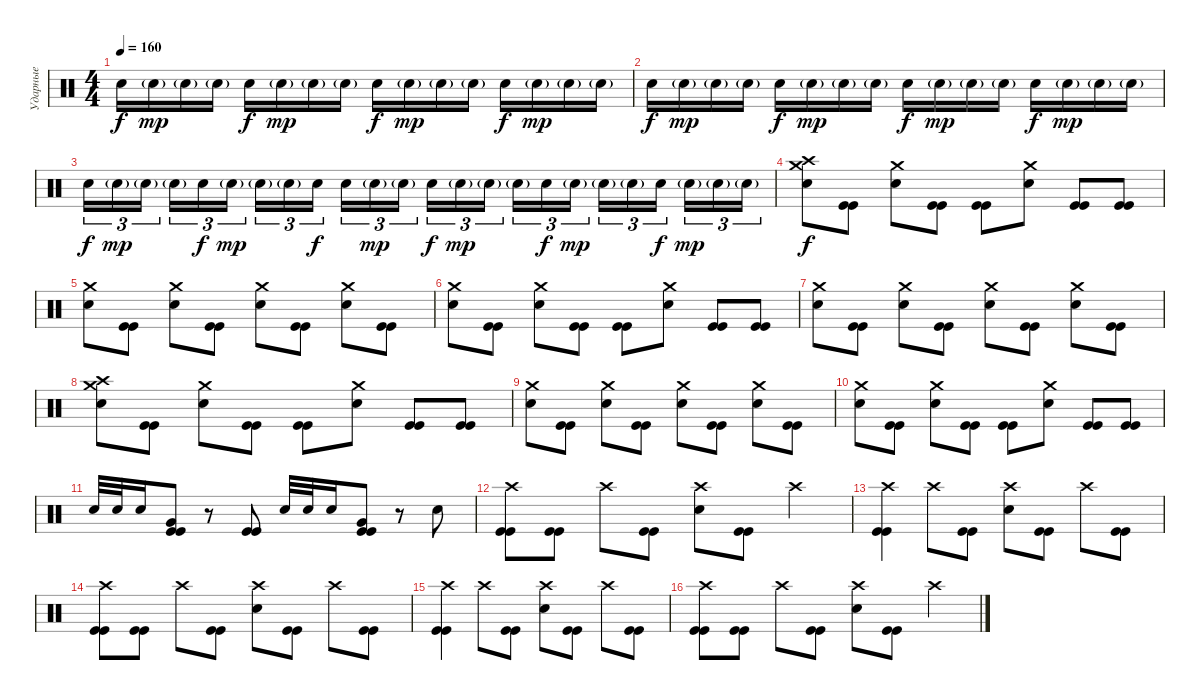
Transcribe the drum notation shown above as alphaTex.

\track ("Ударные" "Ударные") {instrument percussion}
\staff {score}
\articulation defaults
\ts (4 4)
\tempo 160
\clef neutral
\ks c "Electric Snare (hit)".16{dy f} "Electric Snare (hit)"{g}.16{dy mp} "Electric Snare (hit)"{g}.16 "Electric Snare (hit)"{g}.16 "Electric Snare (hit)".16{dy f} "Electric Snare (hit)"{g}.16{dy mp} "Electric Snare (hit)"{g}.16 "Electric Snare (hit)"{g}.16 "Electric Snare (hit)".16{dy f} "Electric Snare (hit)"{g}.16{dy mp} "Electric Snare (hit)"{g}.16 "Electric Snare (hit)"{g}.16 "Electric Snare (hit)".16{dy f} "Electric Snare (hit)"{g}.16{dy mp} "Electric Snare (hit)"{g}.16 "Electric Snare (hit)"{g}.16
|
"Electric Snare (hit)".16{dy f} "Electric Snare (hit)"{g}.16{dy mp} "Electric Snare (hit)"{g}.16 "Electric Snare (hit)"{g}.16 "Electric Snare (hit)".16{dy f} "Electric Snare (hit)"{g}.16{dy mp} "Electric Snare (hit)"{g}.16 "Electric Snare (hit)"{g}.16 "Electric Snare (hit)".16{dy f} "Electric Snare (hit)"{g}.16{dy mp} "Electric Snare (hit)"{g}.16 "Electric Snare (hit)"{g}.16 "Electric Snare (hit)".16{dy f} "Electric Snare (hit)"{g}.16{dy mp} "Electric Snare (hit)"{g}.16 "Electric Snare (hit)"{g}.16 |
"Electric Snare (hit)".16{tu (3 2) dy f} "Electric Snare (hit)"{g}.16{tu (3 2) dy mp} "Electric Snare (hit)"{g}.16{tu (3 2) beam splitsecondary} "Electric Snare (hit)"{g}.16{tu (3 2)} "Electric Snare (hit)".16{tu (3 2) dy f} "Electric Snare (hit)"{g}.16{tu (3 2) dy mp} "Electric Snare (hit)"{g}.16{tu (3 2)} "Electric Snare (hit)"{g}.16{tu (3 2)} "Electric Snare (hit)".16{tu (3 2) dy f beam splitsecondary} "Electric Snare (hit)".16{tu (3 2)} "Electric Snare (hit)"{g}.16{tu (3 2) dy mp} "Electric Snare (hit)"{g}.16{tu (3 2)} "Electric Snare (hit)".16{tu (3 2) dy f} "Electric Snare (hit)"{g}.16{tu (3 2) dy mp} "Electric Snare (hit)"{g}.16{tu (3 2) beam splitsecondary} "Electric Snare (hit)"{g}.16{tu (3 2)} "Electric Snare (hit)".16{tu (3 2) dy f} "Electric Snare (hit)"{g}.16{tu (3 2) dy mp} "Electric Snare (hit)"{g}.16{tu (3 2)} "Electric Snare (hit)"{g}.16{tu (3 2)} "Electric Snare (hit)".16{tu (3 2) dy f beam splitsecondary} "Electric Snare (hit)"{g}.16{tu (3 2) dy mp} "Electric Snare (hit)"{g}.16{tu (3 2)} "Electric Snare (hit)"{g}.16{tu (3 2)} |
("Crash high (hit)" "Crash medium (hit)" "Electric Snare (hit)").8{dy f} ("Kick (hit)" "Kick (hit)").8 ("Crash medium (hit)" "Electric Snare (hit)").8 ("Kick (hit)" "Kick (hit)").8 ("Kick (hit)" "Kick (hit)").8 ("Crash medium (hit)" "Electric Snare (hit)").8 ("Kick (hit)" "Kick (hit)").8 ("Kick (hit)" "Kick (hit)").8 |
("Crash medium (hit)" "Electric Snare (hit)").8 ("Kick (hit)" "Kick (hit)").8 ("Crash medium (hit)" "Electric Snare (hit)").8 ("Kick (hit)" "Kick (hit)").8 ("Crash medium (hit)" "Electric Snare (hit)").8 ("Kick (hit)" "Kick (hit)").8 ("Crash medium (hit)" "Electric Snare (hit)").8 ("Kick (hit)" "Kick (hit)").8 |
("Crash medium (hit)" "Electric Snare (hit)").8 ("Kick (hit)" "Kick (hit)").8 ("Crash medium (hit)" "Electric Snare (hit)").8 ("Kick (hit)" "Kick (hit)").8 ("Kick (hit)" "Kick (hit)").8 ("Crash medium (hit)" "Electric Snare (hit)").8 ("Kick (hit)" "Kick (hit)").8 ("Kick (hit)" "Kick (hit)").8 |
("Crash medium (hit)" "Electric Snare (hit)").8 ("Kick (hit)" "Kick (hit)").8 ("Crash medium (hit)" "Electric Snare (hit)").8 ("Kick (hit)" "Kick (hit)").8 ("Crash medium (hit)" "Electric Snare (hit)").8 ("Kick (hit)" "Kick (hit)").8 ("Crash medium (hit)" "Electric Snare (hit)").8 ("Kick (hit)" "Kick (hit)").8 |
("Crash high (hit)" "Crash medium (hit)" "Electric Snare (hit)").8 ("Kick (hit)" "Kick (hit)").8 ("Crash medium (hit)" "Electric Snare (hit)").8 ("Kick (hit)" "Kick (hit)").8 ("Kick (hit)" "Kick (hit)").8 ("Crash medium (hit)" "Electric Snare (hit)").8 ("Kick (hit)" "Kick (hit)").8 ("Kick (hit)" "Kick (hit)").8 |
("Crash medium (hit)" "Electric Snare (hit)").8 ("Kick (hit)" "Kick (hit)").8 ("Crash medium (hit)" "Electric Snare (hit)").8 ("Kick (hit)" "Kick (hit)").8 ("Crash medium (hit)" "Electric Snare (hit)").8 ("Kick (hit)" "Kick (hit)").8 ("Crash medium (hit)" "Electric Snare (hit)").8 ("Kick (hit)" "Kick (hit)").8 |
("Crash medium (hit)" "Electric Snare (hit)").8 ("Kick (hit)" "Kick (hit)").8 ("Crash medium (hit)" "Electric Snare (hit)").8 ("Kick (hit)" "Kick (hit)").8 ("Kick (hit)" "Kick (hit)").8 ("Crash medium (hit)" "Electric Snare (hit)").8 ("Kick (hit)" "Kick (hit)").8 ("Kick (hit)" "Kick (hit)").8 |
"Electric Snare (hit)".32 "Electric Snare (hit)".32 "Electric Snare (hit)".16 ("Very Low Tom (hit)" "Kick (hit)" "Kick (hit)").8 r.8 ("Kick (hit)" "Kick (hit)").8 "Electric Snare (hit)".32 "Electric Snare (hit)".32 "Electric Snare (hit)".16 ("Very Low Tom (hit)" "Kick (hit)" "Kick (hit)").8 r.8 "Electric Snare (hit)".8 |
("Crash high (hit)" "Kick (hit)" "Kick (hit)").8 ("Kick (hit)" "Kick (hit)").8 "Crash high (hit)".8 ("Kick (hit)" "Kick (hit)").8 ("Crash high (hit)" "Electric Snare (hit)").8 ("Kick (hit)" "Kick (hit)").8 "Crash high (hit)".4 |
("Crash high (hit)" "Kick (hit)" "Kick (hit)").4 "Crash high (hit)".8 ("Kick (hit)" "Kick (hit)").8 ("Crash high (hit)" "Electric Snare (hit)").8 ("Kick (hit)" "Kick (hit)").8 "Crash high (hit)".8 ("Kick (hit)" "Kick (hit)").8 |
("Crash high (hit)" "Kick (hit)" "Kick (hit)").8 ("Kick (hit)" "Kick (hit)").8 "Crash high (hit)".8 ("Kick (hit)" "Kick (hit)").8 ("Crash high (hit)" "Electric Snare (hit)").8 ("Kick (hit)" "Kick (hit)").8 "Crash high (hit)".8 ("Kick (hit)" "Kick (hit)").8 |
("Crash high (hit)" "Kick (hit)" "Kick (hit)").4 "Crash high (hit)".8 ("Kick (hit)" "Kick (hit)").8 ("Crash high (hit)" "Electric Snare (hit)").8 ("Kick (hit)" "Kick (hit)").8 "Crash high (hit)".8 ("Kick (hit)" "Kick (hit)").8 |
("Crash high (hit)" "Kick (hit)" "Kick (hit)").8 ("Kick (hit)" "Kick (hit)").8 "Crash high (hit)".8 ("Kick (hit)" "Kick (hit)").8 ("Crash high (hit)" "Electric Snare (hit)").8 ("Kick (hit)" "Kick (hit)").8 "Crash high (hit)".4
